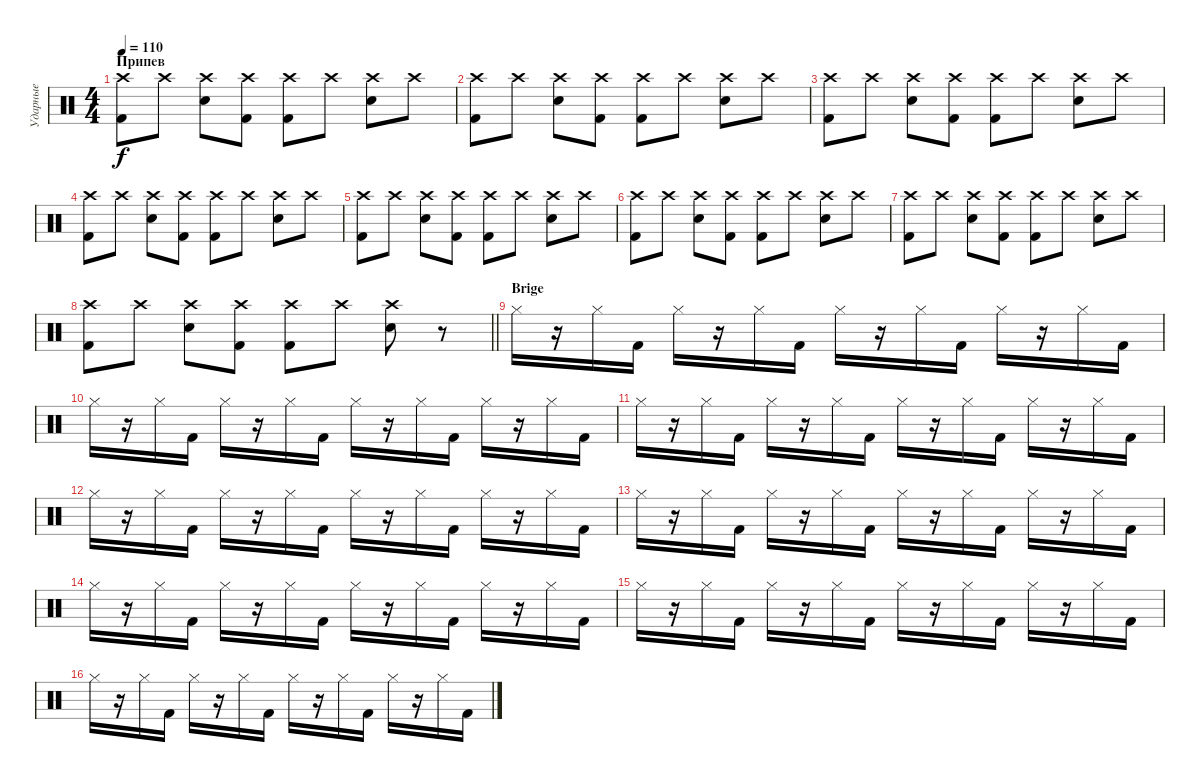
\track ("Ударные" "Ударные") {instrument percussion}
\staff {score}
\articulation defaults
\ts (4 4)
\section ("" "Припев")
\tempo 110
\clef neutral
\ks c
("Crash high (hit)" "Kick (hit) 2").8{dy f} "Crash high (hit)".8 ("Crash high (hit)" "Electric Snare (hit)").8 ("Crash high (hit)" "Kick (hit) 2").8 ("Crash high (hit)" "Kick (hit) 2").8 "Crash high (hit)".8 ("Crash high (hit)" "Electric Snare (hit)").8 "Crash high (hit)".8 |
("Crash high (hit)" "Kick (hit) 2").8 "Crash high (hit)".8 ("Crash high (hit)" "Electric Snare (hit)").8 ("Crash high (hit)" "Kick (hit) 2").8 ("Crash high (hit)" "Kick (hit) 2").8 "Crash high (hit)".8 ("Crash high (hit)" "Electric Snare (hit)").8 "Crash high (hit)".8 |
("Crash high (hit)" "Kick (hit) 2").8 "Crash high (hit)".8 ("Crash high (hit)" "Electric Snare (hit)").8 ("Crash high (hit)" "Kick (hit) 2").8 ("Crash high (hit)" "Kick (hit) 2").8 "Crash high (hit)".8 ("Crash high (hit)" "Electric Snare (hit)").8 "Crash high (hit)".8 |
("Crash high (hit)" "Kick (hit) 2").8 "Crash high (hit)".8 ("Crash high (hit)" "Electric Snare (hit)").8 ("Crash high (hit)" "Kick (hit) 2").8 ("Crash high (hit)" "Kick (hit) 2").8 "Crash high (hit)".8 ("Crash high (hit)" "Electric Snare (hit)").8 "Crash high (hit)".8 |
("Crash high (hit)" "Kick (hit) 2").8 "Crash high (hit)".8 ("Crash high (hit)" "Electric Snare (hit)").8 ("Crash high (hit)" "Kick (hit) 2").8 ("Crash high (hit)" "Kick (hit) 2").8 "Crash high (hit)".8 ("Crash high (hit)" "Electric Snare (hit)").8 "Crash high (hit)".8 |
("Crash high (hit)" "Kick (hit) 2").8 "Crash high (hit)".8 ("Crash high (hit)" "Electric Snare (hit)").8 ("Crash high (hit)" "Kick (hit) 2").8 ("Crash high (hit)" "Kick (hit) 2").8 "Crash high (hit)".8 ("Crash high (hit)" "Electric Snare (hit)").8 "Crash high (hit)".8 |
("Crash high (hit)" "Kick (hit) 2").8 "Crash high (hit)".8 ("Crash high (hit)" "Electric Snare (hit)").8 ("Crash high (hit)" "Kick (hit) 2").8 ("Crash high (hit)" "Kick (hit) 2").8 "Crash high (hit)".8 ("Crash high (hit)" "Electric Snare (hit)").8 "Crash high (hit)".8 |
\barLineRight lightlight
("Crash high (hit)" "Kick (hit) 2").8 "Crash high (hit)".8 ("Crash high (hit)" "Electric Snare (hit)").8 ("Crash high (hit)" "Kick (hit) 2").8 ("Crash high (hit)" "Kick (hit) 2").8 "Crash high (hit)".8 ("Crash high (hit)" "Electric Snare (hit)").8 r.8 |
\section ("" "Brige")
"Hi-Hat (closed)".16 r.16 "Hi-Hat (closed)".16 "Kick (hit) 2".16 "Hi-Hat (closed)".16 r.16 "Hi-Hat (closed)".16 "Kick (hit) 2".16 "Hi-Hat (closed)".16 r.16 "Hi-Hat (closed)".16 "Kick (hit) 2".16 "Hi-Hat (closed)".16 r.16 "Hi-Hat (closed)".16 "Kick (hit) 2".16 |
"Hi-Hat (closed)".16 r.16 "Hi-Hat (closed)".16 "Kick (hit) 2".16 "Hi-Hat (closed)".16 r.16 "Hi-Hat (closed)".16 "Kick (hit) 2".16 "Hi-Hat (closed)".16 r.16 "Hi-Hat (closed)".16 "Kick (hit) 2".16 "Hi-Hat (closed)".16 r.16 "Hi-Hat (closed)".16 "Kick (hit) 2".16 |
"Hi-Hat (closed)".16 r.16 "Hi-Hat (closed)".16 "Kick (hit) 2".16 "Hi-Hat (closed)".16 r.16 "Hi-Hat (closed)".16 "Kick (hit) 2".16 "Hi-Hat (closed)".16 r.16 "Hi-Hat (closed)".16 "Kick (hit) 2".16 "Hi-Hat (closed)".16 r.16 "Hi-Hat (closed)".16 "Kick (hit) 2".16 |
"Hi-Hat (closed)".16 r.16 "Hi-Hat (closed)".16 "Kick (hit) 2".16 "Hi-Hat (closed)".16 r.16 "Hi-Hat (closed)".16 "Kick (hit) 2".16 "Hi-Hat (closed)".16 r.16 "Hi-Hat (closed)".16 "Kick (hit) 2".16 "Hi-Hat (closed)".16 r.16 "Hi-Hat (closed)".16 "Kick (hit) 2".16 |
"Hi-Hat (closed)".16 r.16 "Hi-Hat (closed)".16 "Kick (hit) 2".16 "Hi-Hat (closed)".16 r.16 "Hi-Hat (closed)".16 "Kick (hit) 2".16 "Hi-Hat (closed)".16 r.16 "Hi-Hat (closed)".16 "Kick (hit) 2".16 "Hi-Hat (closed)".16 r.16 "Hi-Hat (closed)".16 "Kick (hit) 2".16 |
"Hi-Hat (closed)".16 r.16 "Hi-Hat (closed)".16 "Kick (hit) 2".16 "Hi-Hat (closed)".16 r.16 "Hi-Hat (closed)".16 "Kick (hit) 2".16 "Hi-Hat (closed)".16 r.16 "Hi-Hat (closed)".16 "Kick (hit) 2".16 "Hi-Hat (closed)".16 r.16 "Hi-Hat (closed)".16 "Kick (hit) 2".16 |
"Hi-Hat (closed)".16 r.16 "Hi-Hat (closed)".16 "Kick (hit) 2".16 "Hi-Hat (closed)".16 r.16 "Hi-Hat (closed)".16 "Kick (hit) 2".16 "Hi-Hat (closed)".16 r.16 "Hi-Hat (closed)".16 "Kick (hit) 2".16 "Hi-Hat (closed)".16 r.16 "Hi-Hat (closed)".16 "Kick (hit) 2".16 |
"Hi-Hat (closed)".16 r.16 "Hi-Hat (closed)".16 "Kick (hit) 2".16 "Hi-Hat (closed)".16 r.16 "Hi-Hat (closed)".16 "Kick (hit) 2".16 "Hi-Hat (closed)".16 r.16 "Hi-Hat (closed)".16 "Kick (hit) 2".16 "Hi-Hat (closed)".16 r.16 "Hi-Hat (closed)".16 "Kick (hit) 2".16
